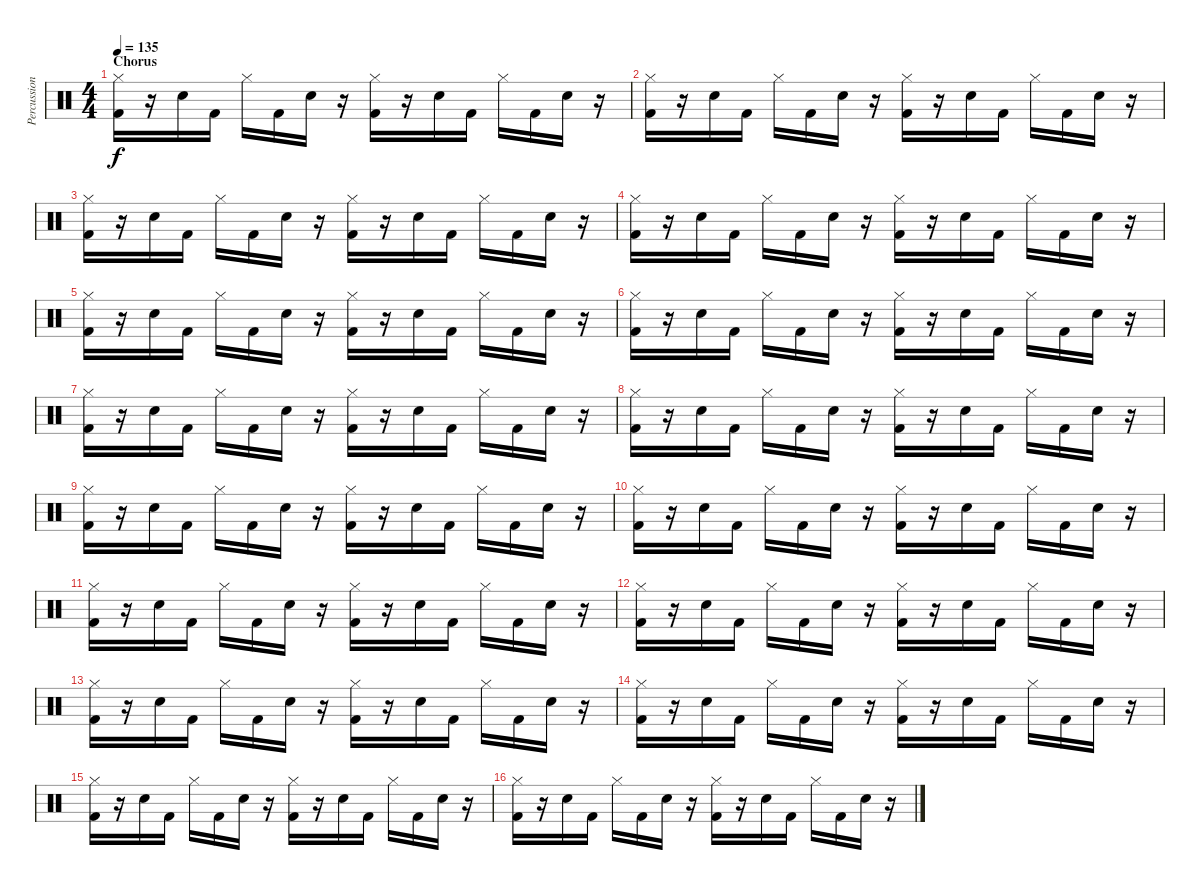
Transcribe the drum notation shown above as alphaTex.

\track ("Percussion" "Percussion") {instrument percussion}
\staff {score}
\articulation defaults
\ts (4 4)
\section ("" "Chorus")
\tempo 135
\clef neutral
\ks c
("Hi-Hat (closed)" "Kick (hit) 2").16{dy f} r.16 "Snare (hit) 2".16 "Kick (hit) 2".16 "Hi-Hat (closed)".16 "Kick (hit) 2".16 "Snare (hit) 2".16 r.16 ("Hi-Hat (closed)" "Kick (hit) 2").16 r.16 "Snare (hit) 2".16 "Kick (hit) 2".16 "Hi-Hat (closed)".16 "Kick (hit) 2".16 "Snare (hit) 2".16 r.16 |
("Hi-Hat (closed)" "Kick (hit) 2").16 r.16 "Snare (hit) 2".16 "Kick (hit) 2".16 "Hi-Hat (closed)".16 "Kick (hit) 2".16 "Snare (hit) 2".16 r.16 ("Hi-Hat (closed)" "Kick (hit) 2").16 r.16 "Snare (hit) 2".16 "Kick (hit) 2".16 "Hi-Hat (closed)".16 "Kick (hit) 2".16 "Snare (hit) 2".16 r.16 |
("Hi-Hat (closed)" "Kick (hit) 2").16 r.16 "Snare (hit) 2".16 "Kick (hit) 2".16 "Hi-Hat (closed)".16 "Kick (hit) 2".16 "Snare (hit) 2".16 r.16 ("Hi-Hat (closed)" "Kick (hit) 2").16 r.16 "Snare (hit) 2".16 "Kick (hit) 2".16 "Hi-Hat (closed)".16 "Kick (hit) 2".16 "Snare (hit) 2".16 r.16 |
("Hi-Hat (closed)" "Kick (hit) 2").16 r.16 "Snare (hit) 2".16 "Kick (hit) 2".16 "Hi-Hat (closed)".16 "Kick (hit) 2".16 "Snare (hit) 2".16 r.16 ("Hi-Hat (closed)" "Kick (hit) 2").16 r.16 "Snare (hit) 2".16 "Kick (hit) 2".16 "Hi-Hat (closed)".16 "Kick (hit) 2".16 "Snare (hit) 2".16 r.16 |
("Hi-Hat (closed)" "Kick (hit) 2").16 r.16 "Snare (hit) 2".16 "Kick (hit) 2".16 "Hi-Hat (closed)".16 "Kick (hit) 2".16 "Snare (hit) 2".16 r.16 ("Hi-Hat (closed)" "Kick (hit) 2").16 r.16 "Snare (hit) 2".16 "Kick (hit) 2".16 "Hi-Hat (closed)".16 "Kick (hit) 2".16 "Snare (hit) 2".16 r.16 |
("Hi-Hat (closed)" "Kick (hit) 2").16 r.16 "Snare (hit) 2".16 "Kick (hit) 2".16 "Hi-Hat (closed)".16 "Kick (hit) 2".16 "Snare (hit) 2".16 r.16 ("Hi-Hat (closed)" "Kick (hit) 2").16 r.16 "Snare (hit) 2".16 "Kick (hit) 2".16 "Hi-Hat (closed)".16 "Kick (hit) 2".16 "Snare (hit) 2".16 r.16 |
("Hi-Hat (closed)" "Kick (hit) 2").16 r.16 "Snare (hit) 2".16 "Kick (hit) 2".16 "Hi-Hat (closed)".16 "Kick (hit) 2".16 "Snare (hit) 2".16 r.16 ("Hi-Hat (closed)" "Kick (hit) 2").16 r.16 "Snare (hit) 2".16 "Kick (hit) 2".16 "Hi-Hat (closed)".16 "Kick (hit) 2".16 "Snare (hit) 2".16 r.16 |
("Hi-Hat (closed)" "Kick (hit) 2").16 r.16 "Snare (hit) 2".16 "Kick (hit) 2".16 "Hi-Hat (closed)".16 "Kick (hit) 2".16 "Snare (hit) 2".16 r.16 ("Hi-Hat (closed)" "Kick (hit) 2").16 r.16 "Snare (hit) 2".16 "Kick (hit) 2".16 "Hi-Hat (closed)".16 "Kick (hit) 2".16 "Snare (hit) 2".16 r.16 |
("Hi-Hat (closed)" "Kick (hit) 2").16 r.16 "Snare (hit) 2".16 "Kick (hit) 2".16 "Hi-Hat (closed)".16 "Kick (hit) 2".16 "Snare (hit) 2".16 r.16 ("Hi-Hat (closed)" "Kick (hit) 2").16 r.16 "Snare (hit) 2".16 "Kick (hit) 2".16 "Hi-Hat (closed)".16 "Kick (hit) 2".16 "Snare (hit) 2".16 r.16 |
("Hi-Hat (closed)" "Kick (hit) 2").16 r.16 "Snare (hit) 2".16 "Kick (hit) 2".16 "Hi-Hat (closed)".16 "Kick (hit) 2".16 "Snare (hit) 2".16 r.16 ("Hi-Hat (closed)" "Kick (hit) 2").16 r.16 "Snare (hit) 2".16 "Kick (hit) 2".16 "Hi-Hat (closed)".16 "Kick (hit) 2".16 "Snare (hit) 2".16 r.16 |
("Hi-Hat (closed)" "Kick (hit) 2").16 r.16 "Snare (hit) 2".16 "Kick (hit) 2".16 "Hi-Hat (closed)".16 "Kick (hit) 2".16 "Snare (hit) 2".16 r.16 ("Hi-Hat (closed)" "Kick (hit) 2").16 r.16 "Snare (hit) 2".16 "Kick (hit) 2".16 "Hi-Hat (closed)".16 "Kick (hit) 2".16 "Snare (hit) 2".16 r.16 |
("Hi-Hat (closed)" "Kick (hit) 2").16 r.16 "Snare (hit) 2".16 "Kick (hit) 2".16 "Hi-Hat (closed)".16 "Kick (hit) 2".16 "Snare (hit) 2".16 r.16 ("Hi-Hat (closed)" "Kick (hit) 2").16 r.16 "Snare (hit) 2".16 "Kick (hit) 2".16 "Hi-Hat (closed)".16 "Kick (hit) 2".16 "Snare (hit) 2".16 r.16 |
("Hi-Hat (closed)" "Kick (hit) 2").16 r.16 "Snare (hit) 2".16 "Kick (hit) 2".16 "Hi-Hat (closed)".16 "Kick (hit) 2".16 "Snare (hit) 2".16 r.16 ("Hi-Hat (closed)" "Kick (hit) 2").16 r.16 "Snare (hit) 2".16 "Kick (hit) 2".16 "Hi-Hat (closed)".16 "Kick (hit) 2".16 "Snare (hit) 2".16 r.16 |
("Hi-Hat (closed)" "Kick (hit) 2").16 r.16 "Snare (hit) 2".16 "Kick (hit) 2".16 "Hi-Hat (closed)".16 "Kick (hit) 2".16 "Snare (hit) 2".16 r.16 ("Hi-Hat (closed)" "Kick (hit) 2").16 r.16 "Snare (hit) 2".16 "Kick (hit) 2".16 "Hi-Hat (closed)".16 "Kick (hit) 2".16 "Snare (hit) 2".16 r.16 |
("Hi-Hat (closed)" "Kick (hit) 2").16 r.16 "Snare (hit) 2".16 "Kick (hit) 2".16 "Hi-Hat (closed)".16 "Kick (hit) 2".16 "Snare (hit) 2".16 r.16 ("Hi-Hat (closed)" "Kick (hit) 2").16 r.16 "Snare (hit) 2".16 "Kick (hit) 2".16 "Hi-Hat (closed)".16 "Kick (hit) 2".16 "Snare (hit) 2".16 r.16 |
("Hi-Hat (closed)" "Kick (hit) 2").16 r.16 "Snare (hit) 2".16 "Kick (hit) 2".16 "Hi-Hat (closed)".16 "Kick (hit) 2".16 "Snare (hit) 2".16 r.16 ("Hi-Hat (closed)" "Kick (hit) 2").16 r.16 "Snare (hit) 2".16 "Kick (hit) 2".16 "Hi-Hat (closed)".16 "Kick (hit) 2".16 "Snare (hit) 2".16 r.16
